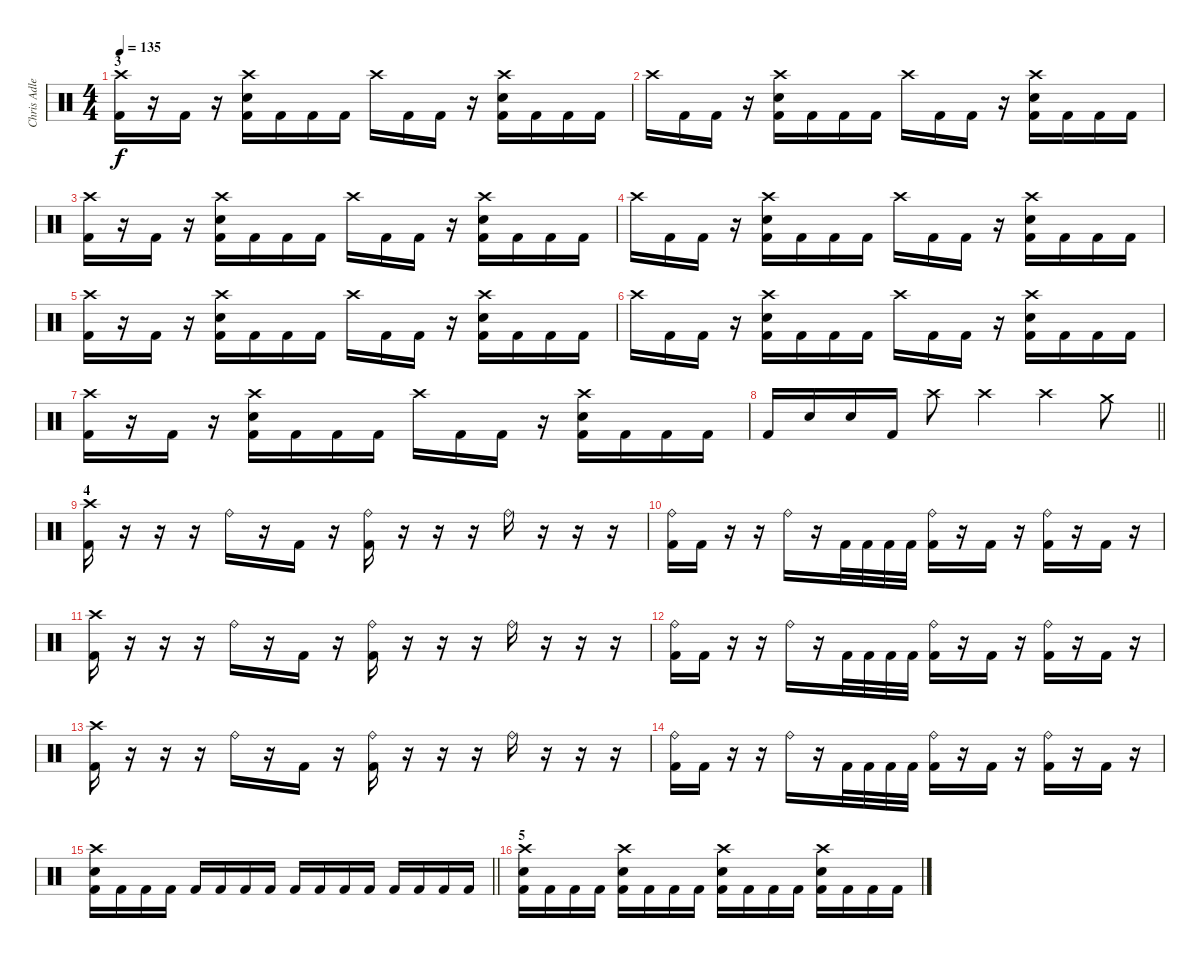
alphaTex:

\track ("Chris Adler" "Chris Adle") {instrument percussion}
\staff {score}
\articulation defaults
\ts (4 4)
\section ("" "3")
\tempo 135
\clef neutral
\ks c
("Crash high (hit)" "Kick (hit) 2").16{dy f} r.16 "Kick (hit) 2".16 r.16 ("Crash high (hit)" "Electric Snare (hit)" "Kick (hit) 2").16 "Kick (hit) 2".16 "Kick (hit) 2".16 "Kick (hit) 2".16 "Crash high (hit)".16 "Kick (hit) 2".16 "Kick (hit) 2".16 r.16 ("Crash high (hit)" "Electric Snare (hit)" "Kick (hit) 2").16 "Kick (hit) 2".16 "Kick (hit) 2".16 "Kick (hit) 2".16 |
"Crash high (hit)".16 "Kick (hit) 2".16 "Kick (hit) 2".16 r.16 ("Crash high (hit)" "Electric Snare (hit)" "Kick (hit) 2").16 "Kick (hit) 2".16 "Kick (hit) 2".16 "Kick (hit) 2".16 "Crash high (hit)".16 "Kick (hit) 2".16 "Kick (hit) 2".16 r.16 ("Crash high (hit)" "Electric Snare (hit)" "Kick (hit) 2").16 "Kick (hit) 2".16 "Kick (hit) 2".16 "Kick (hit) 2".16 |
("Crash high (hit)" "Kick (hit) 2").16 r.16 "Kick (hit) 2".16 r.16 ("Crash high (hit)" "Electric Snare (hit)" "Kick (hit) 2").16 "Kick (hit) 2".16 "Kick (hit) 2".16 "Kick (hit) 2".16 "Crash high (hit)".16 "Kick (hit) 2".16 "Kick (hit) 2".16 r.16 ("Crash high (hit)" "Electric Snare (hit)" "Kick (hit) 2").16 "Kick (hit) 2".16 "Kick (hit) 2".16 "Kick (hit) 2".16 |
"Crash high (hit)".16 "Kick (hit) 2".16 "Kick (hit) 2".16 r.16 ("Crash high (hit)" "Electric Snare (hit)" "Kick (hit) 2").16 "Kick (hit) 2".16 "Kick (hit) 2".16 "Kick (hit) 2".16 "Crash high (hit)".16 "Kick (hit) 2".16 "Kick (hit) 2".16 r.16 ("Crash high (hit)" "Electric Snare (hit)" "Kick (hit) 2").16 "Kick (hit) 2".16 "Kick (hit) 2".16 "Kick (hit) 2".16 |
("Crash high (hit)" "Kick (hit) 2").16 r.16 "Kick (hit) 2".16 r.16 ("Crash high (hit)" "Electric Snare (hit)" "Kick (hit) 2").16 "Kick (hit) 2".16 "Kick (hit) 2".16 "Kick (hit) 2".16 "Crash high (hit)".16 "Kick (hit) 2".16 "Kick (hit) 2".16 r.16 ("Crash high (hit)" "Electric Snare (hit)" "Kick (hit) 2").16 "Kick (hit) 2".16 "Kick (hit) 2".16 "Kick (hit) 2".16 |
"Crash high (hit)".16 "Kick (hit) 2".16 "Kick (hit) 2".16 r.16 ("Crash high (hit)" "Electric Snare (hit)" "Kick (hit) 2").16 "Kick (hit) 2".16 "Kick (hit) 2".16 "Kick (hit) 2".16 "Crash high (hit)".16 "Kick (hit) 2".16 "Kick (hit) 2".16 r.16 ("Crash high (hit)" "Electric Snare (hit)" "Kick (hit) 2").16 "Kick (hit) 2".16 "Kick (hit) 2".16 "Kick (hit) 2".16 |
("Crash high (hit)" "Kick (hit) 2").16 r.16 "Kick (hit) 2".16 r.16 ("Crash high (hit)" "Electric Snare (hit)" "Kick (hit) 2").16 "Kick (hit) 2".16 "Kick (hit) 2".16 "Kick (hit) 2".16 "Crash high (hit)".16 "Kick (hit) 2".16 "Kick (hit) 2".16 r.16 ("Crash high (hit)" "Electric Snare (hit)" "Kick (hit) 2").16 "Kick (hit) 2".16 "Kick (hit) 2".16 "Kick (hit) 2".16 |
\barLineRight lightlight "Kick (hit) 2".16 "Electric Snare (hit)".16 "Electric Snare (hit)".16 "Kick (hit) 2".16 "Crash high (hit)".8 "Crash high (hit)".4 "Crash high (hit)".4 "Crash medium (hit)".8
|
\section ("" "4")
("Crash high (hit)" "Kick (hit) 2").16 r.16 r.16 r.16 "Ride (bell)".16 r.16 "Kick (hit) 2".16 r.16 ("Ride (bell)" "Kick (hit) 2").16 r.16 r.16 r.16 "Ride (bell)".16 r.16 r.16 r.16 |
("Ride (bell)" "Kick (hit) 2").16 "Kick (hit) 2".16 r.16 r.16 "Ride (bell)".16 r.16 "Kick (hit) 2".32 "Kick (hit) 2".32 "Kick (hit) 2".32 "Kick (hit) 2".32 ("Ride (bell)" "Kick (hit) 2").16 r.16 "Kick (hit) 2".16 r.16 ("Ride (bell)" "Kick (hit) 2").16 r.16 "Kick (hit) 2".16 r.16 |
("Crash high (hit)" "Kick (hit) 2").16 r.16 r.16 r.16 "Ride (bell)".16 r.16 "Kick (hit) 2".16 r.16 ("Ride (bell)" "Kick (hit) 2").16 r.16 r.16 r.16 "Ride (bell)".16 r.16 r.16 r.16 |
("Ride (bell)" "Kick (hit) 2").16 "Kick (hit) 2".16 r.16 r.16 "Ride (bell)".16 r.16 "Kick (hit) 2".32 "Kick (hit) 2".32 "Kick (hit) 2".32 "Kick (hit) 2".32 ("Ride (bell)" "Kick (hit) 2").16 r.16 "Kick (hit) 2".16 r.16 ("Ride (bell)" "Kick (hit) 2").16 r.16 "Kick (hit) 2".16 r.16 |
("Crash high (hit)" "Kick (hit) 2").16 r.16 r.16 r.16 "Ride (bell)".16 r.16 "Kick (hit) 2".16 r.16 ("Ride (bell)" "Kick (hit) 2").16 r.16 r.16 r.16 "Ride (bell)".16 r.16 r.16 r.16 |
("Ride (bell)" "Kick (hit) 2").16 "Kick (hit) 2".16 r.16 r.16 "Ride (bell)".16 r.16 "Kick (hit) 2".32 "Kick (hit) 2".32 "Kick (hit) 2".32 "Kick (hit) 2".32 ("Ride (bell)" "Kick (hit) 2").16 r.16 "Kick (hit) 2".16 r.16 ("Ride (bell)" "Kick (hit) 2").16 r.16 "Kick (hit) 2".16 r.16 |
\barLineRight lightlight
("Crash high (hit)" "Electric Snare (hit)" "Kick (hit) 2").16 "Kick (hit) 2".16 "Kick (hit) 2".16 "Kick (hit) 2".16 "Kick (hit) 2".16 "Kick (hit) 2".16 "Kick (hit) 2".16 "Kick (hit) 2".16 "Kick (hit) 2".16 "Kick (hit) 2".16 "Kick (hit) 2".16 "Kick (hit) 2".16 "Kick (hit) 2".16 "Kick (hit) 2".16 "Kick (hit) 2".16 "Kick (hit) 2".16 |
\section ("" "5")
("Crash high (hit)" "Electric Snare (hit)" "Kick (hit) 2").16 "Kick (hit) 2".16 "Kick (hit) 2".16 "Kick (hit) 2".16 ("Crash high (hit)" "Electric Snare (hit)" "Kick (hit) 2").16 "Kick (hit) 2".16 "Kick (hit) 2".16 "Kick (hit) 2".16 ("Crash high (hit)" "Electric Snare (hit)" "Kick (hit) 2").16 "Kick (hit) 2".16 "Kick (hit) 2".16 "Kick (hit) 2".16 ("Crash high (hit)" "Electric Snare (hit)" "Kick (hit) 2").16 "Kick (hit) 2".16 "Kick (hit) 2".16 "Kick (hit) 2".16
